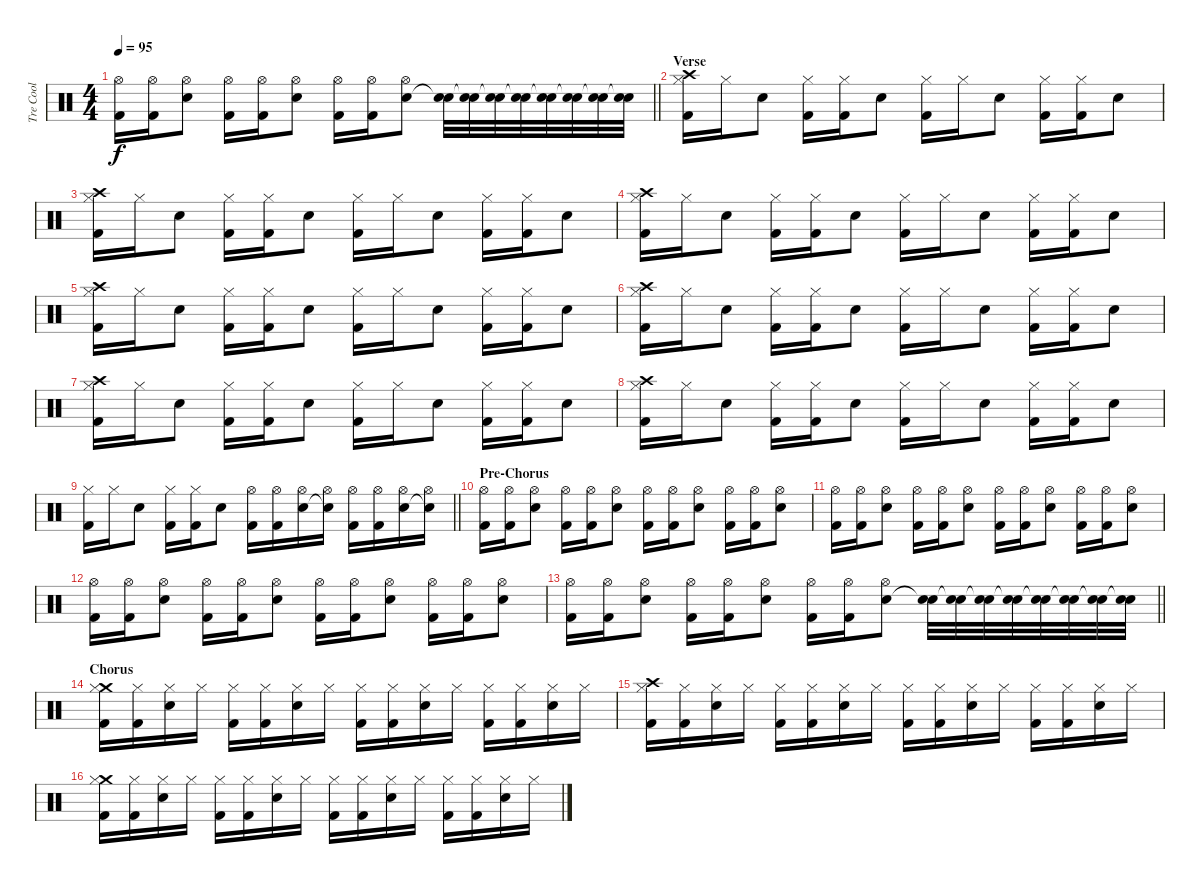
\track ("Tre Cool" "Tre Cool") {instrument percussion}
\staff {score}
\articulation defaults
\ts (4 4)
\tempo 95
\clef neutral
\barLineRight lightlight
\ks c
("Hi-Hat (open)" "Kick (hit) 2").16{dy f} ("Hi-Hat (open)" "Kick (hit) 2").16 ("Electric Snare (hit)" "Hi-Hat (open)").8 ("Hi-Hat (open)" "Kick (hit) 2").16 ("Hi-Hat (open)" "Kick (hit) 2").16 ("Electric Snare (hit)" "Hi-Hat (open)").8 ("Hi-Hat (open)" "Kick (hit) 2").16 ("Hi-Hat (open)" "Kick (hit) 2").16 ("Electric Snare (hit)" "Hi-Hat (open)").8 ("Snare (hit)"{t} "Electric Snare (hit)").32 ("Snare (hit)"{t} "Electric Snare (hit)").32 ("Snare (hit)"{t} "Electric Snare (hit)").32 ("Snare (hit)"{t} "Electric Snare (hit)").32 ("Snare (hit)"{t} "Electric Snare (hit)").32 ("Snare (hit)"{t} "Electric Snare (hit)").32 ("Snare (hit)"{t} "Electric Snare (hit)").32 ("Snare (hit)"{t} "Electric Snare (hit)").32 |
\section ("" "Verse")
("Crash high (hit)" "Hi-Hat (closed)" "Kick (hit) 2").16 "Hi-Hat (closed)".16 "Electric Snare (hit)".8 ("Hi-Hat (closed)" "Kick (hit) 2").16 ("Hi-Hat (closed)" "Kick (hit) 2").16 "Electric Snare (hit)".8 ("Hi-Hat (closed)" "Kick (hit) 2").16 "Hi-Hat (closed)".16 "Electric Snare (hit)".8 ("Hi-Hat (closed)" "Kick (hit) 2").16 ("Hi-Hat (closed)" "Kick (hit) 2").16 "Electric Snare (hit)".8 |
("Crash high (hit)" "Hi-Hat (closed)" "Kick (hit) 2").16 "Hi-Hat (closed)".16 "Electric Snare (hit)".8 ("Hi-Hat (closed)" "Kick (hit) 2").16 ("Hi-Hat (closed)" "Kick (hit) 2").16 "Electric Snare (hit)".8 ("Hi-Hat (closed)" "Kick (hit) 2").16 "Hi-Hat (closed)".16 "Electric Snare (hit)".8 ("Hi-Hat (closed)" "Kick (hit) 2").16 ("Hi-Hat (closed)" "Kick (hit) 2").16 "Electric Snare (hit)".8 |
("Crash high (hit)" "Hi-Hat (closed)" "Kick (hit) 2").16 "Hi-Hat (closed)".16 "Electric Snare (hit)".8 ("Hi-Hat (closed)" "Kick (hit) 2").16 ("Hi-Hat (closed)" "Kick (hit) 2").16 "Electric Snare (hit)".8 ("Hi-Hat (closed)" "Kick (hit) 2").16 "Hi-Hat (closed)".16 "Electric Snare (hit)".8 ("Hi-Hat (closed)" "Kick (hit) 2").16 ("Hi-Hat (closed)" "Kick (hit) 2").16 "Electric Snare (hit)".8 |
("Crash high (hit)" "Hi-Hat (closed)" "Kick (hit) 2").16 "Hi-Hat (closed)".16 "Electric Snare (hit)".8 ("Hi-Hat (closed)" "Kick (hit) 2").16 ("Hi-Hat (closed)" "Kick (hit) 2").16 "Electric Snare (hit)".8 ("Hi-Hat (closed)" "Kick (hit) 2").16 "Hi-Hat (closed)".16 "Electric Snare (hit)".8 ("Hi-Hat (closed)" "Kick (hit) 2").16 ("Hi-Hat (closed)" "Kick (hit) 2").16 "Electric Snare (hit)".8 |
("Crash high (hit)" "Hi-Hat (closed)" "Kick (hit) 2").16 "Hi-Hat (closed)".16 "Electric Snare (hit)".8 ("Hi-Hat (closed)" "Kick (hit) 2").16 ("Hi-Hat (closed)" "Kick (hit) 2").16 "Electric Snare (hit)".8 ("Hi-Hat (closed)" "Kick (hit) 2").16 "Hi-Hat (closed)".16 "Electric Snare (hit)".8 ("Hi-Hat (closed)" "Kick (hit) 2").16 ("Hi-Hat (closed)" "Kick (hit) 2").16 "Electric Snare (hit)".8 |
("Crash high (hit)" "Hi-Hat (closed)" "Kick (hit) 2").16 "Hi-Hat (closed)".16 "Electric Snare (hit)".8 ("Hi-Hat (closed)" "Kick (hit) 2").16 ("Hi-Hat (closed)" "Kick (hit) 2").16 "Electric Snare (hit)".8 ("Hi-Hat (closed)" "Kick (hit) 2").16 "Hi-Hat (closed)".16 "Electric Snare (hit)".8 ("Hi-Hat (closed)" "Kick (hit) 2").16 ("Hi-Hat (closed)" "Kick (hit) 2").16 "Electric Snare (hit)".8 |
("Crash high (hit)" "Hi-Hat (closed)" "Kick (hit) 2").16 "Hi-Hat (closed)".16 "Electric Snare (hit)".8 ("Hi-Hat (closed)" "Kick (hit) 2").16 ("Hi-Hat (closed)" "Kick (hit) 2").16 "Electric Snare (hit)".8 ("Hi-Hat (closed)" "Kick (hit) 2").16 "Hi-Hat (closed)".16 "Electric Snare (hit)".8 ("Hi-Hat (closed)" "Kick (hit) 2").16 ("Hi-Hat (closed)" "Kick (hit) 2").16 "Electric Snare (hit)".8 |
\barLineRight lightlight
("Hi-Hat (closed)" "Kick (hit) 2").16 "Hi-Hat (closed)".16 "Electric Snare (hit)".8 ("Hi-Hat (closed)" "Kick (hit) 2").16 ("Hi-Hat (closed)" "Kick (hit) 2").16 "Electric Snare (hit)".8 ("Hi-Hat (open)" "Kick (hit) 2").16 ("Hi-Hat (open)" "Kick (hit) 2").16 ("Electric Snare (hit)" "Hi-Hat (open)").16 ("Electric Snare (hit)"{t} "Hi-Hat (open)").16 ("Hi-Hat (open)" "Kick (hit) 2").16 ("Hi-Hat (open)" "Kick (hit) 2").16 ("Electric Snare (hit)" "Hi-Hat (open)").16 ("Snare (hit)"{t} "Hi-Hat (open)").16 |
\section ("" "Pre-Chorus")
("Hi-Hat (open)" "Kick (hit) 2").16 ("Hi-Hat (open)" "Kick (hit) 2").16 ("Electric Snare (hit)" "Hi-Hat (open)").8 ("Hi-Hat (open)" "Kick (hit) 2").16 ("Hi-Hat (open)" "Kick (hit) 2").16 ("Electric Snare (hit)" "Hi-Hat (open)").8 ("Hi-Hat (open)" "Kick (hit) 2").16 ("Hi-Hat (open)" "Kick (hit) 2").16 ("Electric Snare (hit)" "Hi-Hat (open)").8 ("Hi-Hat (open)" "Kick (hit) 2").16 ("Hi-Hat (open)" "Kick (hit) 2").16 ("Electric Snare (hit)" "Hi-Hat (open)").8 |
("Hi-Hat (open)" "Kick (hit) 2").16 ("Hi-Hat (open)" "Kick (hit) 2").16 ("Electric Snare (hit)" "Hi-Hat (open)").8 ("Hi-Hat (open)" "Kick (hit) 2").16 ("Hi-Hat (open)" "Kick (hit) 2").16 ("Electric Snare (hit)" "Hi-Hat (open)").8 ("Hi-Hat (open)" "Kick (hit) 2").16 ("Hi-Hat (open)" "Kick (hit) 2").16 ("Electric Snare (hit)" "Hi-Hat (open)").8 ("Hi-Hat (open)" "Kick (hit) 2").16 ("Hi-Hat (open)" "Kick (hit) 2").16 ("Electric Snare (hit)" "Hi-Hat (open)").8 |
("Hi-Hat (open)" "Kick (hit) 2").16 ("Hi-Hat (open)" "Kick (hit) 2").16 ("Electric Snare (hit)" "Hi-Hat (open)").8 ("Hi-Hat (open)" "Kick (hit) 2").16 ("Hi-Hat (open)" "Kick (hit) 2").16 ("Electric Snare (hit)" "Hi-Hat (open)").8 ("Hi-Hat (open)" "Kick (hit) 2").16 ("Hi-Hat (open)" "Kick (hit) 2").16 ("Electric Snare (hit)" "Hi-Hat (open)").8 ("Hi-Hat (open)" "Kick (hit) 2").16 ("Hi-Hat (open)" "Kick (hit) 2").16 ("Electric Snare (hit)" "Hi-Hat (open)").8 |
\barLineRight lightlight
("Hi-Hat (open)" "Kick (hit) 2").16 ("Hi-Hat (open)" "Kick (hit) 2").16 ("Electric Snare (hit)" "Hi-Hat (open)").8 ("Hi-Hat (open)" "Kick (hit) 2").16 ("Hi-Hat (open)" "Kick (hit) 2").16 ("Electric Snare (hit)" "Hi-Hat (open)").8 ("Hi-Hat (open)" "Kick (hit) 2").16 ("Hi-Hat (open)" "Kick (hit) 2").16 ("Electric Snare (hit)" "Hi-Hat (open)").8 ("Snare (hit)"{t} "Electric Snare (hit)").32 ("Snare (hit)"{t} "Electric Snare (hit)").32 ("Snare (hit)"{t} "Electric Snare (hit)").32 ("Snare (hit)"{t} "Electric Snare (hit)").32 ("Snare (hit)"{t} "Electric Snare (hit)").32 ("Snare (hit)"{t} "Electric Snare (hit)").32 ("Snare (hit)"{t} "Electric Snare (hit)").32 ("Snare (hit)"{t} "Electric Snare (hit)").32 |
\section ("" "Chorus")
("Crash medium (hit)" "Hi-Hat (closed)" "Kick (hit) 2").16 ("Hi-Hat (closed)" "Kick (hit) 2").16 ("Hi-Hat (closed)" "Electric Snare (hit)").16 "Hi-Hat (closed)".16 ("Hi-Hat (closed)" "Kick (hit) 2").16 ("Hi-Hat (closed)" "Kick (hit) 2").16 ("Hi-Hat (closed)" "Electric Snare (hit)").16 "Hi-Hat (closed)".16 ("Hi-Hat (closed)" "Kick (hit) 2").16 ("Hi-Hat (closed)" "Kick (hit) 2").16 ("Hi-Hat (closed)" "Electric Snare (hit)").16 "Hi-Hat (closed)".16 ("Hi-Hat (closed)" "Kick (hit) 2").16 ("Hi-Hat (closed)" "Kick (hit) 2").16 ("Hi-Hat (closed)" "Electric Snare (hit)").16 "Hi-Hat (closed)".16 |
("Crash high (hit)" "Hi-Hat (closed)" "Kick (hit) 2").16 ("Hi-Hat (closed)" "Kick (hit) 2").16 ("Hi-Hat (closed)" "Electric Snare (hit)").16 "Hi-Hat (closed)".16 ("Hi-Hat (closed)" "Kick (hit) 2").16 ("Hi-Hat (closed)" "Kick (hit) 2").16 ("Hi-Hat (closed)" "Electric Snare (hit)").16 "Hi-Hat (closed)".16 ("Hi-Hat (closed)" "Kick (hit) 2").16 ("Hi-Hat (closed)" "Kick (hit) 2").16 ("Hi-Hat (closed)" "Electric Snare (hit)").16 "Hi-Hat (closed)".16 ("Hi-Hat (closed)" "Kick (hit) 2").16 ("Hi-Hat (closed)" "Kick (hit) 2").16 ("Hi-Hat (closed)" "Electric Snare (hit)").16 "Hi-Hat (closed)".16 |
("Crash medium (hit)" "Hi-Hat (closed)" "Kick (hit) 2").16 ("Hi-Hat (closed)" "Kick (hit) 2").16 ("Hi-Hat (closed)" "Electric Snare (hit)").16 "Hi-Hat (closed)".16 ("Hi-Hat (closed)" "Kick (hit) 2").16 ("Hi-Hat (closed)" "Kick (hit) 2").16 ("Hi-Hat (closed)" "Electric Snare (hit)").16 "Hi-Hat (closed)".16 ("Hi-Hat (closed)" "Kick (hit) 2").16 ("Hi-Hat (closed)" "Kick (hit) 2").16 ("Hi-Hat (closed)" "Electric Snare (hit)").16 "Hi-Hat (closed)".16 ("Hi-Hat (closed)" "Kick (hit) 2").16 ("Hi-Hat (closed)" "Kick (hit) 2").16 ("Hi-Hat (closed)" "Electric Snare (hit)").16 "Hi-Hat (closed)".16
